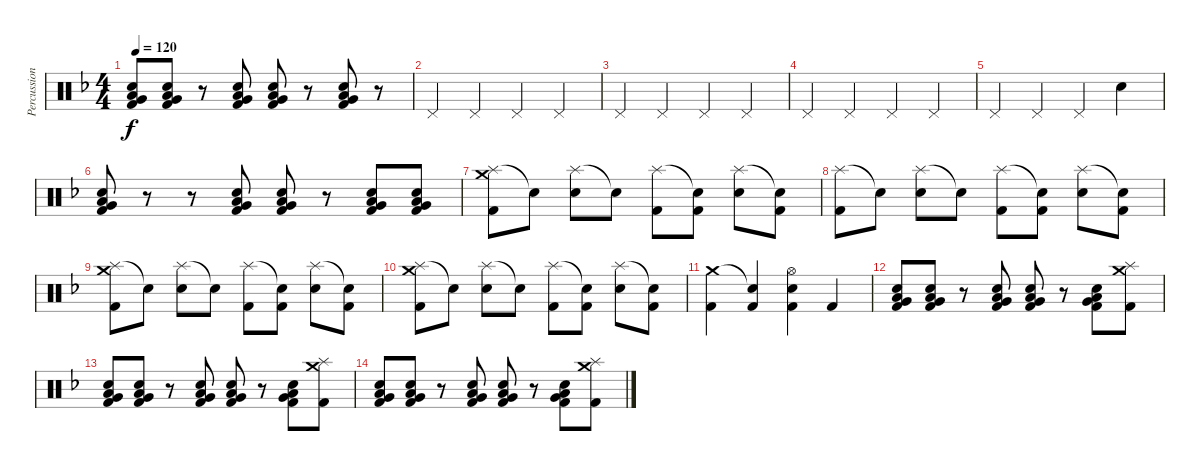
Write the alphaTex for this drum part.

\track ("Percussion" "Percussion") {instrument percussion}
\staff {score}
\articulation defaults
\ts (4 4)
\tempo 120
\clef neutral
\ks f
("Electric Snare (hit)" "Low Floor Tom (hit)" "Very Low Tom (hit)" "Kick (hit) 2").8{dy f} ("Electric Snare (hit)" "Low Floor Tom (hit)" "Very Low Tom (hit)" "Kick (hit) 2").8 r.8 ("Electric Snare (hit)" "Low Floor Tom (hit)" "Very Low Tom (hit)" "Kick (hit) 2").8 ("Electric Snare (hit)" "Low Floor Tom (hit)" "Very Low Tom (hit)" "Kick (hit) 2").8 r.8 ("Electric Snare (hit)" "Low Floor Tom (hit)" "Very Low Tom (hit)" "Kick (hit) 2").8 r.8 |
"Pedal Hi-Hat (hit)".4 "Pedal Hi-Hat (hit)".4 "Pedal Hi-Hat (hit)".4 "Pedal Hi-Hat (hit)".4 |
"Pedal Hi-Hat (hit)".4 "Pedal Hi-Hat (hit)".4 "Pedal Hi-Hat (hit)".4 "Pedal Hi-Hat (hit)".4 |
"Pedal Hi-Hat (hit)".4 "Pedal Hi-Hat (hit)".4 "Pedal Hi-Hat (hit)".4 "Pedal Hi-Hat (hit)".4 |
"Pedal Hi-Hat (hit)".4 "Pedal Hi-Hat (hit)".4 "Pedal Hi-Hat (hit)".4 "Electric Snare (hit)".4 |
("Electric Snare (hit)" "Low Floor Tom (hit)" "Very Low Tom (hit)" "Kick (hit) 2").8 r.8 r.8 ("Electric Snare (hit)" "Low Floor Tom (hit)" "Very Low Tom (hit)" "Kick (hit) 2").8 ("Electric Snare (hit)" "Low Floor Tom (hit)" "Very Low Tom (hit)" "Kick (hit) 2").8 r.8 ("Electric Snare (hit)" "Low Floor Tom (hit)" "Very Low Tom (hit)" "Kick (hit) 2").8 ("Electric Snare (hit)" "Low Floor Tom (hit)" "Very Low Tom (hit)" "Kick (hit) 2").8 |
("Splash (hit)" "Crash medium (hit)" "Kick (hit) 2").8 "Snare (hit)"{t}.8 ("Splash (hit)" "Electric Snare (hit)").8 "Snare (hit)"{t}.8 ("Splash (hit)" "Kick (hit) 2").8 ("Snare (hit)"{t} "Kick (hit) 2").8 ("Splash (hit)" "Electric Snare (hit)").8 ("Snare (hit)"{t} "Kick (hit) 2").8 |
("Splash (hit)" "Kick (hit) 2").8 "Snare (hit)"{t}.8 ("Splash (hit)" "Electric Snare (hit)").8 "Snare (hit)"{t}.8 ("Splash (hit)" "Kick (hit) 2").8 ("Snare (hit)"{t} "Kick (hit) 2").8 ("Splash (hit)" "Electric Snare (hit)").8 ("Snare (hit)"{t} "Kick (hit) 2").8 |
("Splash (hit)" "Crash medium (hit)" "Kick (hit) 2").8 "Snare (hit)"{t}.8 ("Splash (hit)" "Electric Snare (hit)").8 "Snare (hit)"{t}.8 ("Splash (hit)" "Kick (hit) 2").8 ("Snare (hit)"{t} "Kick (hit) 2").8 ("Splash (hit)" "Electric Snare (hit)").8 ("Snare (hit)"{t} "Kick (hit) 2").8 |
("Splash (hit)" "Crash medium (hit)" "Kick (hit) 2").8 "Snare (hit)"{t}.8 ("Splash (hit)" "Electric Snare (hit)").8 "Snare (hit)"{t}.8 ("Splash (hit)" "Kick (hit) 2").8 ("Snare (hit)"{t} "Kick (hit) 2").8 ("Splash (hit)" "Electric Snare (hit)").8 ("Snare (hit)"{t} "Kick (hit) 2").8 |
("Crash medium (hit)" "Kick (hit) 2").4 ("Snare (hit)"{t} "Kick (hit) 2").4 ("Hi-Hat (open)" "Electric Snare (hit)" "Kick (hit) 2").4 "Kick (hit) 2".4 |
("Electric Snare (hit)" "Low Floor Tom (hit)" "Very Low Tom (hit)" "Kick (hit) 2").8 ("Electric Snare (hit)" "Low Floor Tom (hit)" "Very Low Tom (hit)" "Kick (hit) 2").8 r.8 ("Electric Snare (hit)" "Low Floor Tom (hit)" "Very Low Tom (hit)" "Kick (hit) 2").8 ("Electric Snare (hit)" "Low Floor Tom (hit)" "Very Low Tom (hit)" "Kick (hit) 2").8 r.8 ("Electric Snare (hit)" "Low Floor Tom (hit)" "Very Low Tom (hit)" "Kick (hit) 2").8 ("Splash (hit)" "Crash medium (hit)" "Kick (hit) 2").8 |
("Electric Snare (hit)" "Low Floor Tom (hit)" "Very Low Tom (hit)" "Kick (hit) 2").8 ("Electric Snare (hit)" "Low Floor Tom (hit)" "Very Low Tom (hit)" "Kick (hit) 2").8 r.8 ("Electric Snare (hit)" "Low Floor Tom (hit)" "Very Low Tom (hit)" "Kick (hit) 2").8 ("Electric Snare (hit)" "Low Floor Tom (hit)" "Very Low Tom (hit)" "Kick (hit) 2").8 r.8 ("Electric Snare (hit)" "Low Floor Tom (hit)" "Very Low Tom (hit)" "Kick (hit) 2").8 ("Splash (hit)" "Crash medium (hit)" "Kick (hit) 2").8 |
("Electric Snare (hit)" "Low Floor Tom (hit)" "Very Low Tom (hit)" "Kick (hit) 2").8 ("Electric Snare (hit)" "Low Floor Tom (hit)" "Very Low Tom (hit)" "Kick (hit) 2").8 r.8 ("Electric Snare (hit)" "Low Floor Tom (hit)" "Very Low Tom (hit)" "Kick (hit) 2").8 ("Electric Snare (hit)" "Low Floor Tom (hit)" "Very Low Tom (hit)" "Kick (hit) 2").8 r.8 ("Electric Snare (hit)" "Low Floor Tom (hit)" "Very Low Tom (hit)" "Kick (hit) 2").8 ("Splash (hit)" "Crash medium (hit)" "Kick (hit) 2").8
